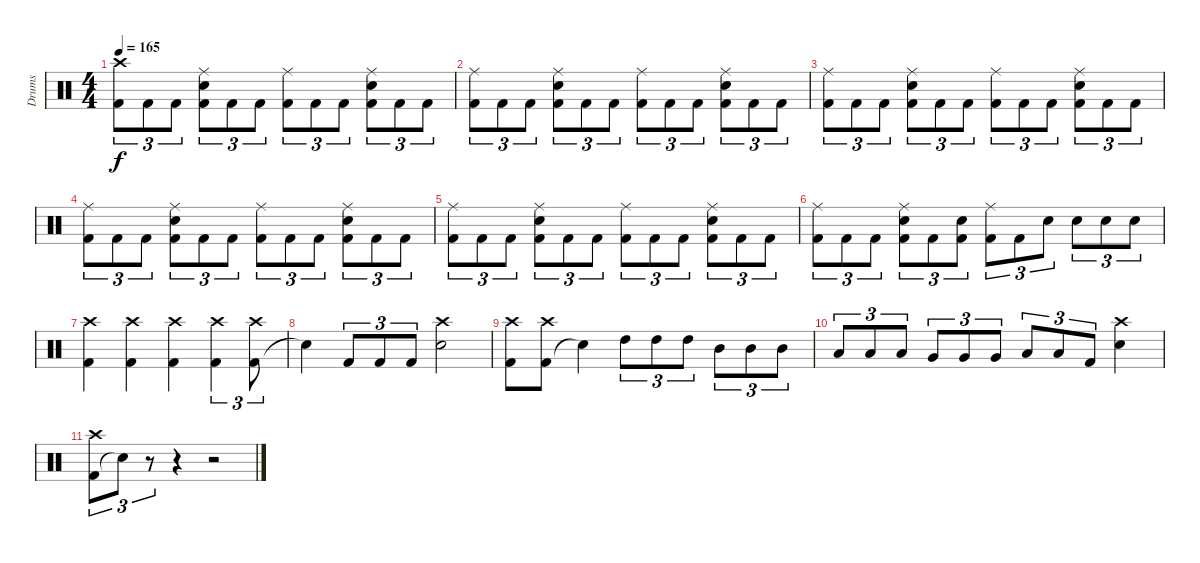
\track ("Drums" "Drums") {instrument percussion}
\staff {score}
\articulation defaults
\ts (4 4)
\tempo 165
\clef neutral
\ks c
("Kick (hit) 2" "Crash high (hit)").8{tu (3 2) dy f} "Kick (hit) 2".8{tu (3 2)} "Kick (hit) 2".8{tu (3 2)} ("Kick (hit) 2" "Snare (hit) 2" "Ride (middle)").8{tu (3 2)} "Kick (hit) 2".8{tu (3 2)} "Kick (hit) 2".8{tu (3 2)} ("Kick (hit) 2" "Ride (middle)").8{tu (3 2)} "Kick (hit) 2".8{tu (3 2)} "Kick (hit) 2".8{tu (3 2)} ("Kick (hit) 2" "Snare (hit) 2" "Ride (middle)").8{tu (3 2)} "Kick (hit) 2".8{tu (3 2)} "Kick (hit) 2".8{tu (3 2)} |
("Kick (hit) 2" "Ride (middle)").8{tu (3 2)} "Kick (hit) 2".8{tu (3 2)} "Kick (hit) 2".8{tu (3 2)} ("Kick (hit) 2" "Snare (hit) 2" "Ride (middle)").8{tu (3 2)} "Kick (hit) 2".8{tu (3 2)} "Kick (hit) 2".8{tu (3 2)} ("Kick (hit) 2" "Ride (middle)").8{tu (3 2)} "Kick (hit) 2".8{tu (3 2)} "Kick (hit) 2".8{tu (3 2)} ("Kick (hit) 2" "Snare (hit) 2" "Ride (middle)").8{tu (3 2)} "Kick (hit) 2".8{tu (3 2)} "Kick (hit) 2".8{tu (3 2)} |
("Kick (hit) 2" "Ride (middle)").8{tu (3 2)} "Kick (hit) 2".8{tu (3 2)} "Kick (hit) 2".8{tu (3 2)} ("Kick (hit) 2" "Snare (hit) 2" "Ride (middle)").8{tu (3 2)} "Kick (hit) 2".8{tu (3 2)} "Kick (hit) 2".8{tu (3 2)} ("Kick (hit) 2" "Ride (middle)").8{tu (3 2)} "Kick (hit) 2".8{tu (3 2)} "Kick (hit) 2".8{tu (3 2)} ("Kick (hit) 2" "Snare (hit) 2" "Ride (middle)").8{tu (3 2)} "Kick (hit) 2".8{tu (3 2)} "Kick (hit) 2".8{tu (3 2)} |
("Kick (hit) 2" "Ride (middle)").8{tu (3 2)} "Kick (hit) 2".8{tu (3 2)} "Kick (hit) 2".8{tu (3 2)} ("Kick (hit) 2" "Snare (hit) 2" "Ride (middle)").8{tu (3 2)} "Kick (hit) 2".8{tu (3 2)} "Kick (hit) 2".8{tu (3 2)} ("Kick (hit) 2" "Ride (middle)").8{tu (3 2)} "Kick (hit) 2".8{tu (3 2)} "Kick (hit) 2".8{tu (3 2)} ("Kick (hit) 2" "Snare (hit) 2" "Ride (middle)").8{tu (3 2)} "Kick (hit) 2".8{tu (3 2)} "Kick (hit) 2".8{tu (3 2)} |
("Kick (hit) 2" "Ride (middle)").8{tu (3 2)} "Kick (hit) 2".8{tu (3 2)} "Kick (hit) 2".8{tu (3 2)} ("Kick (hit) 2" "Snare (hit) 2" "Ride (middle)").8{tu (3 2)} "Kick (hit) 2".8{tu (3 2)} "Kick (hit) 2".8{tu (3 2)} ("Kick (hit) 2" "Ride (middle)").8{tu (3 2)} "Kick (hit) 2".8{tu (3 2)} "Kick (hit) 2".8{tu (3 2)} ("Kick (hit) 2" "Snare (hit) 2" "Ride (middle)").8{tu (3 2)} "Kick (hit) 2".8{tu (3 2)} "Kick (hit) 2".8{tu (3 2)} |
("Kick (hit) 2" "Ride (middle)").8{tu (3 2)} "Kick (hit) 2".8{tu (3 2)} "Kick (hit) 2".8{tu (3 2)} ("Kick (hit) 2" "Snare (hit) 2" "Ride (middle)").8{tu (3 2)} "Kick (hit) 2".8{tu (3 2)} ("Kick (hit) 2" "Snare (hit) 2").8{tu (3 2)} ("Kick (hit) 2" "Ride (middle)").8{tu (3 2)} "Kick (hit) 2".8{tu (3 2)} "Snare (hit) 2".8{tu (3 2)} "Snare (hit) 2".8{tu (3 2)} "Snare (hit) 2".8{tu (3 2)} "Snare (hit) 2".8{tu (3 2)} |
("Kick (hit) 2" "Crash high (hit)").4 ("Kick (hit) 2" "Crash high (hit)").4 ("Kick (hit) 2" "Crash high (hit)").4 ("Kick (hit) 2" "Crash high (hit)").4{tu (3 2)} ("Kick (hit) 2" "Crash high (hit)").8{tu (3 2)} |
"Snare (hit)"{t}.4 "Kick (hit) 2".8{tu (3 2)} "Kick (hit) 2".8{tu (3 2)} "Kick (hit) 2".8{tu (3 2)} ("Snare (hit) 2" "Crash high (hit)").2 |
("Kick (hit) 2" "Crash high (hit)").8 ("Kick (hit) 2" "Crash high (hit)").8 "Snare (hit)"{t}.4 "High Tom (hit)".8{tu (3 2)} "High Tom (hit)".8{tu (3 2)} "High Tom (hit)".8{tu (3 2)} "Mid Tom (hit)".8{tu (3 2)} "Mid Tom (hit)".8{tu (3 2)} "Mid Tom (hit)".8{tu (3 2)} |
"Low Tom (hit)".8{tu (3 2)} "Low Tom (hit)".8{tu (3 2)} "Low Tom (hit)".8{tu (3 2)} "Very Low Tom (hit)".8{tu (3 2)} "Very Low Tom (hit)".8{tu (3 2)} "Very Low Tom (hit)".8{tu (3 2)} "Low Floor Tom (hit)".8{tu (3 2)} "Low Floor Tom (hit)".8{tu (3 2)} "Kick (hit) 2".8{tu (3 2)} ("Snare (hit) 2" "Crash high (hit)").4 |
("Kick (hit) 2" "Crash high (hit)").8{tu (3 2)} "Snare (hit)"{t}.8{tu (3 2)} r.8{tu (3 2)} r.4 r.2
